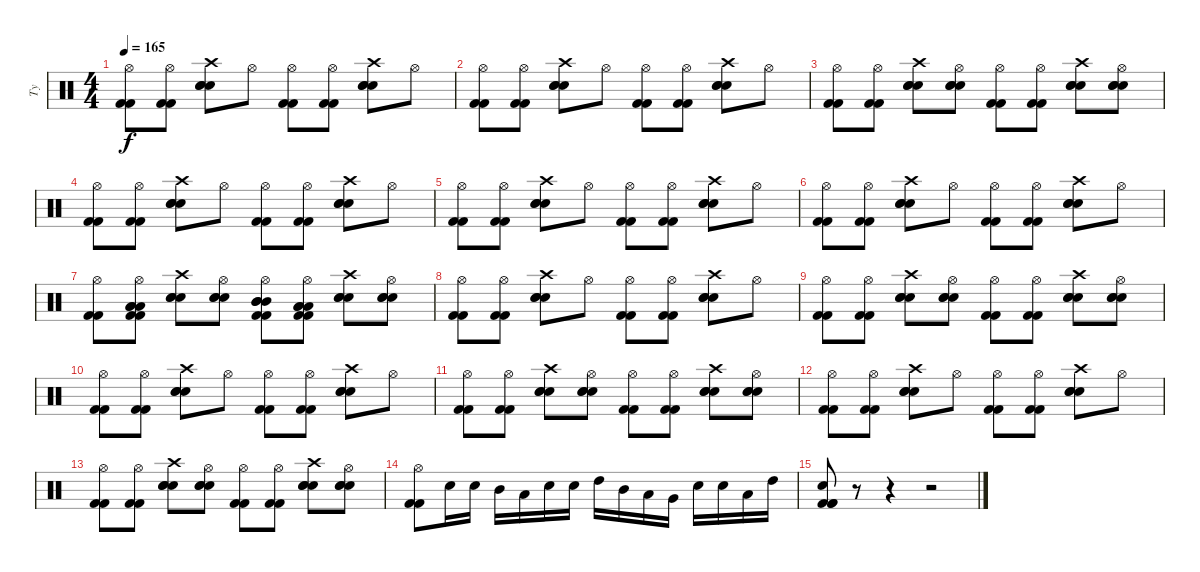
\track ("Ty" "Ty") {instrument percussion}
\staff {score}
\articulation defaults
\ts (4 4)
\tempo 165
\clef neutral
\ks c
("Hi-Hat (open)" "Kick (hit) 2" "Kick (hit) 2").8{dy f} ("Hi-Hat (open)" "Kick (hit) 2" "Kick (hit) 2").8 ("Crash high (hit)" "Hand Clap (hit)" "Hand Clap (hit)" "Electric Snare (hit)").8 "Hi-Hat (open)".8 ("Hi-Hat (open)" "Kick (hit) 2" "Kick (hit) 2").8 ("Hi-Hat (open)" "Kick (hit) 2" "Kick (hit) 2").8 ("Crash high (hit)" "Hand Clap (hit)" "Hand Clap (hit)" "Electric Snare (hit)").8 "Hi-Hat (open)".8 |
("Hi-Hat (open)" "Kick (hit) 2" "Kick (hit) 2").8 ("Hi-Hat (open)" "Kick (hit) 2" "Kick (hit) 2").8 ("Crash high (hit)" "Hand Clap (hit)" "Hand Clap (hit)" "Electric Snare (hit)").8 "Hi-Hat (open)".8 ("Hi-Hat (open)" "Kick (hit) 2" "Kick (hit) 2").8 ("Hi-Hat (open)" "Kick (hit) 2" "Kick (hit) 2").8 ("Crash high (hit)" "Hand Clap (hit)" "Hand Clap (hit)" "Electric Snare (hit)").8 "Hi-Hat (open)".8 |
("Hi-Hat (open)" "Kick (hit) 2" "Kick (hit) 2").8 ("Hi-Hat (open)" "Kick (hit) 2" "Kick (hit) 2").8 ("Crash high (hit)" "Hand Clap (hit)" "Hand Clap (hit)" "Electric Snare (hit)").8 ("Hi-Hat (open)" "Hand Clap (hit)" "Hand Clap (hit)" "Electric Snare (hit)").8 ("Hi-Hat (open)" "Kick (hit) 2" "Kick (hit) 2").8 ("Hi-Hat (open)" "Kick (hit) 2" "Kick (hit) 2").8 ("Crash high (hit)" "Hand Clap (hit)" "Hand Clap (hit)" "Electric Snare (hit)").8 ("Hi-Hat (open)" "Hand Clap (hit)" "Hand Clap (hit)" "Electric Snare (hit)").8 |
("Hi-Hat (open)" "Kick (hit) 2" "Kick (hit) 2").8 ("Hi-Hat (open)" "Kick (hit) 2" "Kick (hit) 2").8 ("Crash high (hit)" "Hand Clap (hit)" "Hand Clap (hit)" "Electric Snare (hit)").8 "Hi-Hat (open)".8 ("Hi-Hat (open)" "Kick (hit) 2" "Kick (hit) 2").8 ("Hi-Hat (open)" "Kick (hit) 2" "Kick (hit) 2").8 ("Crash high (hit)" "Hand Clap (hit)" "Hand Clap (hit)" "Electric Snare (hit)").8 "Hi-Hat (open)".8 |
("Hi-Hat (open)" "Kick (hit) 2" "Kick (hit) 2").8 ("Hi-Hat (open)" "Kick (hit) 2" "Kick (hit) 2").8 ("Crash high (hit)" "Hand Clap (hit)" "Hand Clap (hit)" "Electric Snare (hit)").8 "Hi-Hat (open)".8 ("Hi-Hat (open)" "Kick (hit) 2" "Kick (hit) 2").8 ("Hi-Hat (open)" "Kick (hit) 2" "Kick (hit) 2").8 ("Crash high (hit)" "Hand Clap (hit)" "Hand Clap (hit)" "Electric Snare (hit)").8 "Hi-Hat (open)".8 |
("Hi-Hat (open)" "Kick (hit) 2" "Kick (hit) 2").8 ("Hi-Hat (open)" "Kick (hit) 2" "Kick (hit) 2").8 ("Crash high (hit)" "Hand Clap (hit)" "Hand Clap (hit)" "Electric Snare (hit)").8 "Hi-Hat (open)".8 ("Hi-Hat (open)" "Kick (hit) 2" "Kick (hit) 2").8 ("Hi-Hat (open)" "Kick (hit) 2" "Kick (hit) 2").8 ("Crash high (hit)" "Hand Clap (hit)" "Hand Clap (hit)" "Electric Snare (hit)").8 "Hi-Hat (open)".8 |
("Hi-Hat (open)" "Kick (hit) 2" "Kick (hit) 2").8 ("Hi-Hat (open)" "Low Tom (hit)" "Low Tom (hit)" "Low Tom (hit)" "Kick (hit) 2" "Kick (hit) 2").8 ("Crash high (hit)" "Hand Clap (hit)" "Hand Clap (hit)" "Electric Snare (hit)").8 ("Hi-Hat (open)" "Hand Clap (hit)" "Hand Clap (hit)" "Electric Snare (hit)").8 ("Hi-Hat (open)" "Mid Tom (hit)" "Mid Tom (hit)" "Mid Tom (hit)" "Kick (hit) 2" "Kick (hit) 2").8 ("Hi-Hat (open)" "Low Tom (hit)" "Low Tom (hit)" "Low Tom (hit)" "Kick (hit) 2" "Kick (hit) 2").8 ("Crash high (hit)" "Hand Clap (hit)" "Hand Clap (hit)" "Electric Snare (hit)").8 ("Hi-Hat (open)" "Hand Clap (hit)" "Hand Clap (hit)" "Electric Snare (hit)").8 |
("Hi-Hat (open)" "Kick (hit) 2" "Kick (hit) 2").8 ("Hi-Hat (open)" "Kick (hit) 2" "Kick (hit) 2").8 ("Crash high (hit)" "Hand Clap (hit)" "Hand Clap (hit)" "Electric Snare (hit)").8 "Hi-Hat (open)".8 ("Hi-Hat (open)" "Kick (hit) 2" "Kick (hit) 2").8 ("Hi-Hat (open)" "Kick (hit) 2" "Kick (hit) 2").8 ("Crash high (hit)" "Hand Clap (hit)" "Hand Clap (hit)" "Electric Snare (hit)").8 "Hi-Hat (open)".8 |
("Hi-Hat (open)" "Kick (hit) 2" "Kick (hit) 2").8 ("Hi-Hat (open)" "Kick (hit) 2" "Kick (hit) 2").8 ("Crash high (hit)" "Hand Clap (hit)" "Hand Clap (hit)" "Electric Snare (hit)").8 ("Hi-Hat (open)" "Hand Clap (hit)" "Hand Clap (hit)" "Electric Snare (hit)").8 ("Hi-Hat (open)" "Kick (hit) 2" "Kick (hit) 2").8 ("Hi-Hat (open)" "Kick (hit) 2" "Kick (hit) 2").8 ("Crash high (hit)" "Hand Clap (hit)" "Hand Clap (hit)" "Electric Snare (hit)").8 ("Hi-Hat (open)" "Hand Clap (hit)" "Hand Clap (hit)" "Electric Snare (hit)").8 |
("Hi-Hat (open)" "Kick (hit) 2" "Kick (hit) 2").8 ("Hi-Hat (open)" "Kick (hit) 2" "Kick (hit) 2").8 ("Crash high (hit)" "Hand Clap (hit)" "Hand Clap (hit)" "Electric Snare (hit)").8 "Hi-Hat (open)".8 ("Hi-Hat (open)" "Kick (hit) 2" "Kick (hit) 2").8 ("Hi-Hat (open)" "Kick (hit) 2" "Kick (hit) 2").8 ("Crash high (hit)" "Hand Clap (hit)" "Hand Clap (hit)" "Electric Snare (hit)").8 "Hi-Hat (open)".8 |
("Hi-Hat (open)" "Kick (hit) 2" "Kick (hit) 2").8 ("Hi-Hat (open)" "Kick (hit) 2" "Kick (hit) 2").8 ("Crash high (hit)" "Hand Clap (hit)" "Hand Clap (hit)" "Electric Snare (hit)").8 ("Hi-Hat (open)" "Hand Clap (hit)" "Hand Clap (hit)" "Electric Snare (hit)").8 ("Hi-Hat (open)" "Kick (hit) 2" "Kick (hit) 2").8 ("Hi-Hat (open)" "Kick (hit) 2" "Kick (hit) 2").8 ("Crash high (hit)" "Hand Clap (hit)" "Hand Clap (hit)" "Electric Snare (hit)").8 ("Hi-Hat (open)" "Hand Clap (hit)" "Hand Clap (hit)" "Electric Snare (hit)").8 |
("Hi-Hat (open)" "Kick (hit) 2" "Kick (hit) 2").8 ("Hi-Hat (open)" "Kick (hit) 2" "Kick (hit) 2").8 ("Crash high (hit)" "Hand Clap (hit)" "Hand Clap (hit)" "Electric Snare (hit)").8 "Hi-Hat (open)".8 ("Hi-Hat (open)" "Kick (hit) 2" "Kick (hit) 2").8 ("Hi-Hat (open)" "Kick (hit) 2" "Kick (hit) 2").8 ("Crash high (hit)" "Hand Clap (hit)" "Hand Clap (hit)" "Electric Snare (hit)").8 "Hi-Hat (open)".8 |
("Hi-Hat (open)" "Kick (hit) 2" "Kick (hit) 2").8 ("Hi-Hat (open)" "Kick (hit) 2" "Kick (hit) 2").8 ("Crash high (hit)" "Hand Clap (hit)" "Hand Clap (hit)" "Electric Snare (hit)").8 ("Hi-Hat (open)" "Hand Clap (hit)" "Hand Clap (hit)" "Electric Snare (hit)").8 ("Hi-Hat (open)" "Kick (hit) 2" "Kick (hit) 2").8 ("Hi-Hat (open)" "Kick (hit) 2" "Kick (hit) 2").8 ("Crash high (hit)" "Hand Clap (hit)" "Hand Clap (hit)" "Electric Snare (hit)").8 ("Hi-Hat (open)" "Hand Clap (hit)" "Hand Clap (hit)" "Electric Snare (hit)").8 |
("Hi-Hat (open)" "Kick (hit) 2" "Kick (hit) 2").8 "Electric Snare (hit)".16 "Electric Snare (hit)".16 "Mid Tom (hit)".16 "Low Tom (hit)".16 "Electric Snare (hit)".16 "Electric Snare (hit)".16 "High Tom (hit)".16 "Mid Tom (hit)".16 "Low Tom (hit)".16 "Very Low Tom (hit)".16 "Electric Snare (hit)".16 "Electric Snare (hit)".16 "Low Tom (hit)".16 "High Tom (hit)".16 |
("Kick (hit) 2" "Electric Snare (hit)" "Kick (hit) 2" "Kick (hit) 2").8 r.8 r.4 r.2
